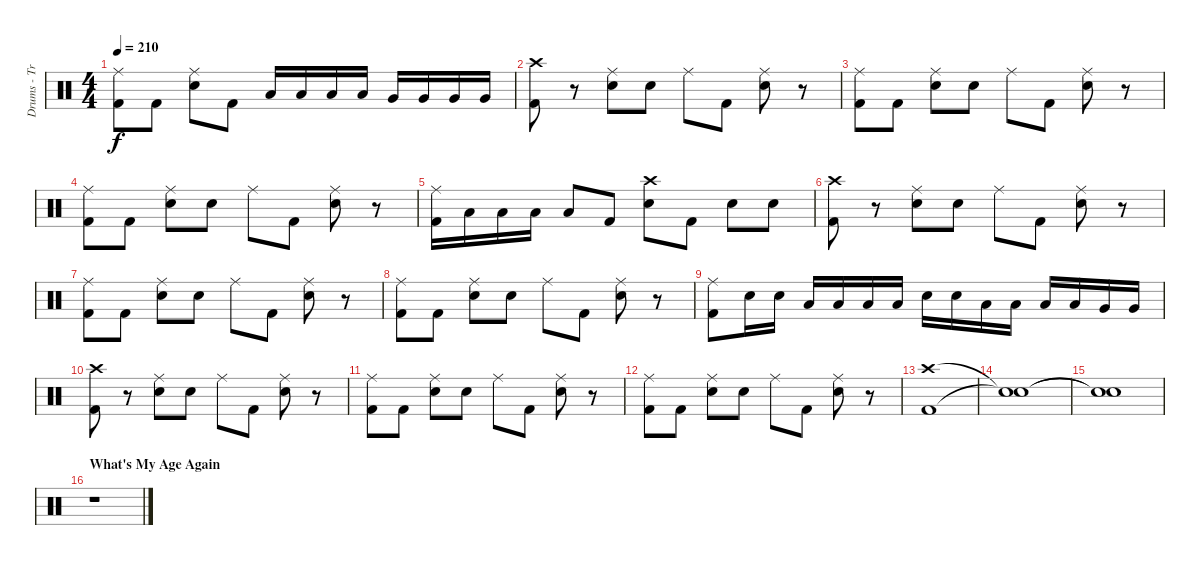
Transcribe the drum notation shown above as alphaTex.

\track ("Drums - Travis Barker" "Drums - Tr") {instrument percussion}
\staff {score}
\articulation defaults
\ts (4 4)
\tempo 210
\clef neutral
\ks c
("Ride (middle)" "Kick (hit) 2").8{dy f} "Kick (hit) 2".8 ("Ride (middle)" "Electric Snare (hit)").8 "Kick (hit) 2".8 "Low Tom (hit)".16 "Low Tom (hit)".16 "Low Tom (hit)".16 "Low Tom (hit)".16 "Very Low Tom (hit)".16 "Very Low Tom (hit)".16 "Very Low Tom (hit)".16 "Very Low Tom (hit)".16 |
("Crash high (hit)" "Kick (hit) 2").8 r.8 ("Ride (middle)" "Electric Snare (hit)").8 "Electric Snare (hit)".8 "Ride (middle)".8 "Kick (hit) 2".8 ("Ride (middle)" "Electric Snare (hit)").8 r.8 |
("Ride (middle)" "Kick (hit) 2").8 "Kick (hit) 2".8 ("Ride (middle)" "Electric Snare (hit)").8 "Electric Snare (hit)".8 "Ride (middle)".8 "Kick (hit) 2".8 ("Ride (middle)" "Electric Snare (hit)").8 r.8 |
("Ride (middle)" "Kick (hit) 2").8 "Kick (hit) 2".8 ("Ride (middle)" "Electric Snare (hit)").8 "Electric Snare (hit)".8 "Ride (middle)".8 "Kick (hit) 2".8 ("Ride (middle)" "Electric Snare (hit)").8 r.8 |
("Ride (middle)" "Kick (hit) 2").16 "Low Tom (hit)".16 "Low Tom (hit)".16 "Low Tom (hit)".16 "Low Tom (hit)".8 "Kick (hit) 2".8 ("Crash high (hit)" "Electric Snare (hit)").8 "Kick (hit) 2".8 "Electric Snare (hit)".8 "Electric Snare (hit)".8 |
("Crash high (hit)" "Kick (hit) 2").8 r.8 ("Ride (middle)" "Electric Snare (hit)").8 "Electric Snare (hit)".8 "Ride (middle)".8 "Kick (hit) 2".8 ("Ride (middle)" "Electric Snare (hit)").8 r.8 |
("Ride (middle)" "Kick (hit) 2").8 "Kick (hit) 2".8 ("Ride (middle)" "Electric Snare (hit)").8 "Electric Snare (hit)".8 "Ride (middle)".8 "Kick (hit) 2".8 ("Ride (middle)" "Electric Snare (hit)").8 r.8 |
("Ride (middle)" "Kick (hit) 2").8 "Kick (hit) 2".8 ("Ride (middle)" "Electric Snare (hit)").8 "Electric Snare (hit)".8 "Ride (middle)".8 "Kick (hit) 2".8 ("Ride (middle)" "Electric Snare (hit)").8 r.8 |
("Ride (middle)" "Kick (hit) 2").8 "Electric Snare (hit)".16 "Electric Snare (hit)".16 "Low Tom (hit)".16 "Low Tom (hit)".16 "Low Tom (hit)".16 "Low Tom (hit)".16 "Electric Snare (hit)".16 "Electric Snare (hit)".16 "Low Tom (hit)".16 "Low Tom (hit)".16 "Low Tom (hit)".16 "Low Tom (hit)".16 "Very Low Tom (hit)".16 "Very Low Tom (hit)".16 |
("Crash high (hit)" "Kick (hit) 2").8 r.8 ("Ride (middle)" "Electric Snare (hit)").8 "Electric Snare (hit)".8 "Ride (middle)".8 "Kick (hit) 2".8 ("Ride (middle)" "Electric Snare (hit)").8 r.8 |
("Ride (middle)" "Kick (hit) 2").8 "Kick (hit) 2".8 ("Ride (middle)" "Electric Snare (hit)").8 "Electric Snare (hit)".8 "Ride (middle)".8 "Kick (hit) 2".8 ("Ride (middle)" "Electric Snare (hit)").8 r.8 |
("Ride (middle)" "Kick (hit) 2").8 "Kick (hit) 2".8 ("Ride (middle)" "Electric Snare (hit)").8 "Electric Snare (hit)".8 "Ride (middle)".8 "Kick (hit) 2".8 ("Ride (middle)" "Electric Snare (hit)").8 r.8 |
("Crash high (hit)" "Kick (hit) 2").1 |
("Snare (hit)"{t} "Snare (hit)"{t}).1 |
("Snare (hit)"{t} "Snare (hit)"{t}).1 |
\section ("" "What's My Age Again")
r.1
